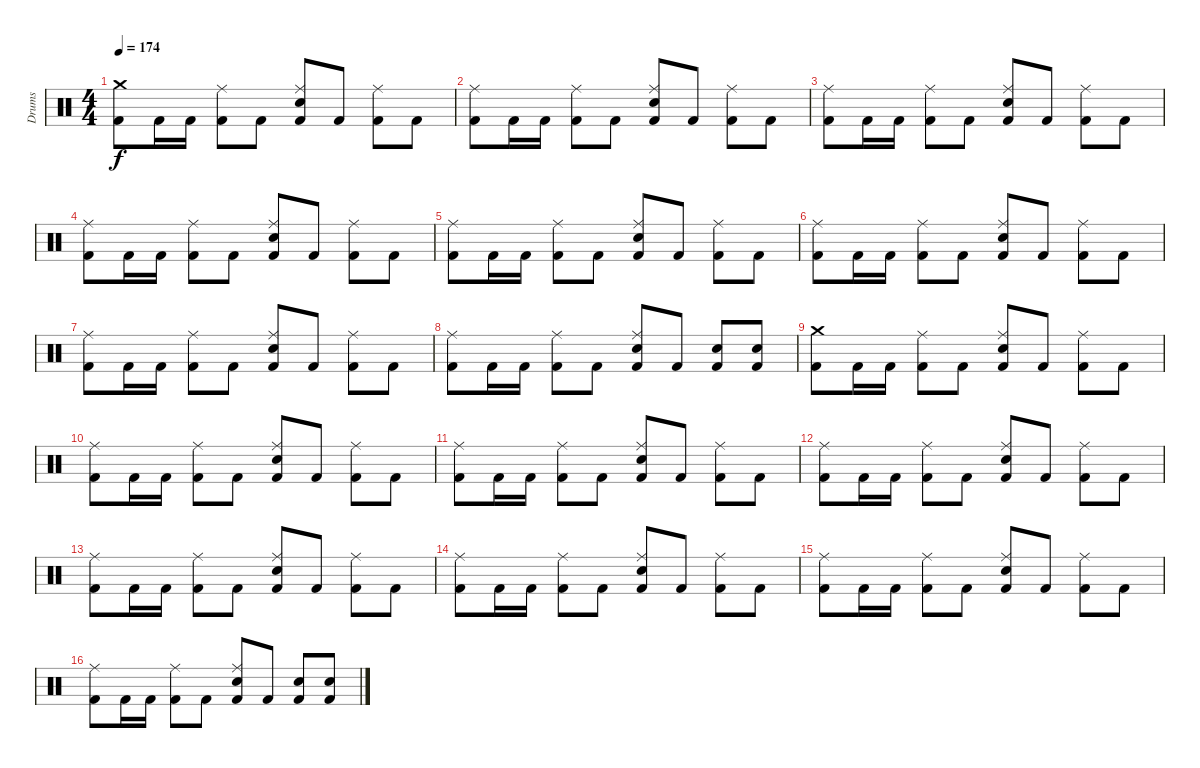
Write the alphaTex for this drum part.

\track ("Drums" "Drums") {instrument percussion}
\staff {score}
\articulation defaults
\ts (4 4)
\tempo 174
\clef neutral
\ks c
("Crash medium (hit)" "Kick (hit) 2").8{dy f} "Kick (hit) 2".16 "Kick (hit) 2".16 ("Ride (middle)" "Kick (hit) 2").8 "Kick (hit) 2".8 ("Ride (middle)" "Electric Snare (hit)" "Kick (hit) 2").8 "Kick (hit) 2".8 ("Ride (middle)" "Kick (hit) 2").8 "Kick (hit) 2".8 |
("Ride (middle)" "Kick (hit) 2").8 "Kick (hit) 2".16 "Kick (hit) 2".16 ("Ride (middle)" "Kick (hit) 2").8 "Kick (hit) 2".8 ("Ride (middle)" "Electric Snare (hit)" "Kick (hit) 2").8 "Kick (hit) 2".8 ("Ride (middle)" "Kick (hit) 2").8 "Kick (hit) 2".8 |
("Ride (middle)" "Kick (hit) 2").8 "Kick (hit) 2".16 "Kick (hit) 2".16 ("Ride (middle)" "Kick (hit) 2").8 "Kick (hit) 2".8 ("Ride (middle)" "Electric Snare (hit)" "Kick (hit) 2").8 "Kick (hit) 2".8 ("Ride (middle)" "Kick (hit) 2").8 "Kick (hit) 2".8 |
("Ride (middle)" "Kick (hit) 2").8 "Kick (hit) 2".16 "Kick (hit) 2".16 ("Ride (middle)" "Kick (hit) 2").8 "Kick (hit) 2".8 ("Ride (middle)" "Electric Snare (hit)" "Kick (hit) 2").8 "Kick (hit) 2".8 ("Ride (middle)" "Kick (hit) 2").8 "Kick (hit) 2".8 |
("Ride (middle)" "Kick (hit) 2").8 "Kick (hit) 2".16 "Kick (hit) 2".16 ("Ride (middle)" "Kick (hit) 2").8 "Kick (hit) 2".8 ("Ride (middle)" "Electric Snare (hit)" "Kick (hit) 2").8 "Kick (hit) 2".8 ("Ride (middle)" "Kick (hit) 2").8 "Kick (hit) 2".8 |
("Ride (middle)" "Kick (hit) 2").8 "Kick (hit) 2".16 "Kick (hit) 2".16 ("Ride (middle)" "Kick (hit) 2").8 "Kick (hit) 2".8 ("Ride (middle)" "Electric Snare (hit)" "Kick (hit) 2").8 "Kick (hit) 2".8 ("Ride (middle)" "Kick (hit) 2").8 "Kick (hit) 2".8 |
("Ride (middle)" "Kick (hit) 2").8 "Kick (hit) 2".16 "Kick (hit) 2".16 ("Ride (middle)" "Kick (hit) 2").8 "Kick (hit) 2".8 ("Ride (middle)" "Electric Snare (hit)" "Kick (hit) 2").8 "Kick (hit) 2".8 ("Ride (middle)" "Kick (hit) 2").8 "Kick (hit) 2".8 |
("Ride (middle)" "Kick (hit) 2").8 "Kick (hit) 2".16 "Kick (hit) 2".16 ("Ride (middle)" "Kick (hit) 2").8 "Kick (hit) 2".8 ("Ride (middle)" "Electric Snare (hit)" "Kick (hit) 2").8 "Kick (hit) 2".8 ("Electric Snare (hit)" "Kick (hit) 2").8 ("Electric Snare (hit)" "Kick (hit) 2").8 |
("Crash medium (hit)" "Kick (hit) 2").8 "Kick (hit) 2".16 "Kick (hit) 2".16 ("Ride (middle)" "Kick (hit) 2").8 "Kick (hit) 2".8 ("Ride (middle)" "Electric Snare (hit)" "Kick (hit) 2").8 "Kick (hit) 2".8 ("Ride (middle)" "Kick (hit) 2").8 "Kick (hit) 2".8 |
("Ride (middle)" "Kick (hit) 2").8 "Kick (hit) 2".16 "Kick (hit) 2".16 ("Ride (middle)" "Kick (hit) 2").8 "Kick (hit) 2".8 ("Ride (middle)" "Electric Snare (hit)" "Kick (hit) 2").8 "Kick (hit) 2".8 ("Ride (middle)" "Kick (hit) 2").8 "Kick (hit) 2".8 |
("Ride (middle)" "Kick (hit) 2").8 "Kick (hit) 2".16 "Kick (hit) 2".16 ("Ride (middle)" "Kick (hit) 2").8 "Kick (hit) 2".8 ("Ride (middle)" "Electric Snare (hit)" "Kick (hit) 2").8 "Kick (hit) 2".8 ("Ride (middle)" "Kick (hit) 2").8 "Kick (hit) 2".8 |
("Ride (middle)" "Kick (hit) 2").8 "Kick (hit) 2".16 "Kick (hit) 2".16 ("Ride (middle)" "Kick (hit) 2").8 "Kick (hit) 2".8 ("Ride (middle)" "Electric Snare (hit)" "Kick (hit) 2").8 "Kick (hit) 2".8 ("Ride (middle)" "Kick (hit) 2").8 "Kick (hit) 2".8 |
("Ride (middle)" "Kick (hit) 2").8 "Kick (hit) 2".16 "Kick (hit) 2".16 ("Ride (middle)" "Kick (hit) 2").8 "Kick (hit) 2".8 ("Ride (middle)" "Electric Snare (hit)" "Kick (hit) 2").8 "Kick (hit) 2".8 ("Ride (middle)" "Kick (hit) 2").8 "Kick (hit) 2".8 |
("Ride (middle)" "Kick (hit) 2").8 "Kick (hit) 2".16 "Kick (hit) 2".16 ("Ride (middle)" "Kick (hit) 2").8 "Kick (hit) 2".8 ("Ride (middle)" "Electric Snare (hit)" "Kick (hit) 2").8 "Kick (hit) 2".8 ("Ride (middle)" "Kick (hit) 2").8 "Kick (hit) 2".8 |
("Ride (middle)" "Kick (hit) 2").8 "Kick (hit) 2".16 "Kick (hit) 2".16 ("Ride (middle)" "Kick (hit) 2").8 "Kick (hit) 2".8 ("Ride (middle)" "Electric Snare (hit)" "Kick (hit) 2").8 "Kick (hit) 2".8 ("Ride (middle)" "Kick (hit) 2").8 "Kick (hit) 2".8 |
("Ride (middle)" "Kick (hit) 2").8 "Kick (hit) 2".16 "Kick (hit) 2".16 ("Ride (middle)" "Kick (hit) 2").8 "Kick (hit) 2".8 ("Ride (middle)" "Electric Snare (hit)" "Kick (hit) 2").8 "Kick (hit) 2".8 ("Electric Snare (hit)" "Kick (hit) 2").8 ("Electric Snare (hit)" "Kick (hit) 2").8
